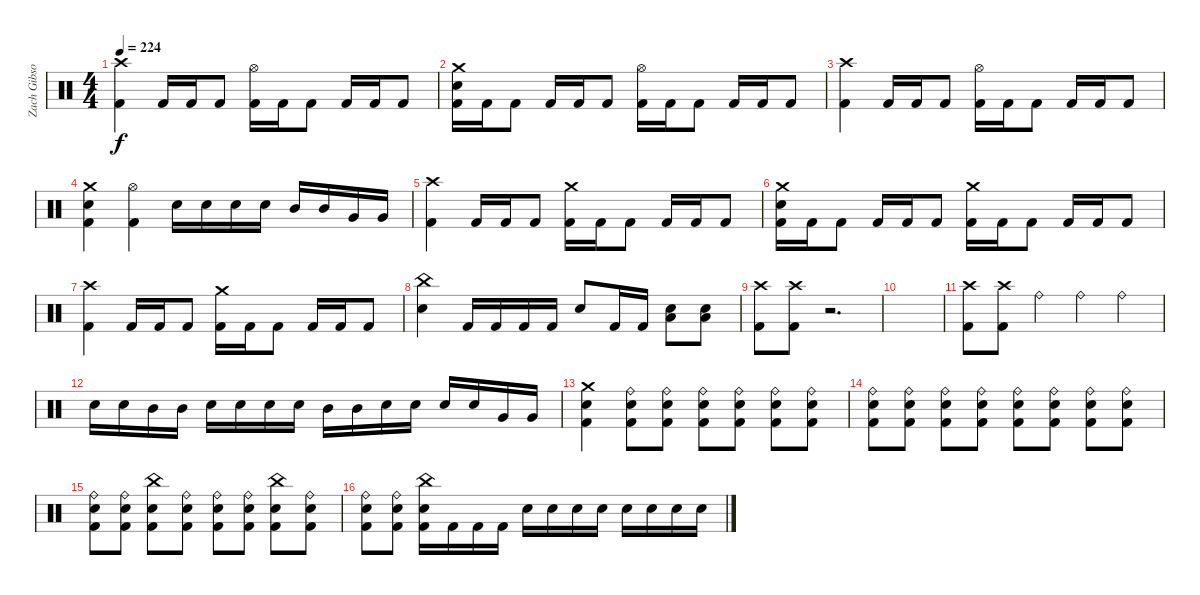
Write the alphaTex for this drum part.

\track ("Zach Gibson (Drums)" "Zach Gibso") {instrument percussion}
\staff {score}
\articulation defaults
\ts (4 4)
\tempo 224
\clef neutral
\ks c
("Crash high (hit)" "Kick (hit) 2").4{dy f} "Kick (hit) 2".16 "Kick (hit) 2".16 "Kick (hit) 2".8 ("Hi-Hat (open)" "Kick (hit) 2").16 "Kick (hit) 2".16 "Kick (hit) 2".8 "Kick (hit) 2".16 "Kick (hit) 2".16 "Kick (hit) 2".8 |
("Snare (hit) 2" "Crash medium (hit)" "Kick (hit) 2").16 "Kick (hit) 2".16 "Kick (hit) 2".8 "Kick (hit) 2".16 "Kick (hit) 2".16 "Kick (hit) 2".8 ("Hi-Hat (open)" "Kick (hit) 2").16 "Kick (hit) 2".16 "Kick (hit) 2".8 "Kick (hit) 2".16 "Kick (hit) 2".16 "Kick (hit) 2".8 |
("Crash high (hit)" "Kick (hit) 2").4 "Kick (hit) 2".16 "Kick (hit) 2".16 "Kick (hit) 2".8 ("Hi-Hat (open)" "Kick (hit) 2").16 "Kick (hit) 2".16 "Kick (hit) 2".8 "Kick (hit) 2".16 "Kick (hit) 2".16 "Kick (hit) 2".8 |
("Crash medium (hit)" "Snare (hit) 2" "Kick (hit) 2").4 ("Hi-Hat (open)" "Kick (hit) 2").4 "Snare (hit) 2".16 "Snare (hit) 2".16 "Snare (hit) 2".16 "Snare (hit) 2".16 "Mid Tom (hit)".16 "Mid Tom (hit)".16 "Very Low Tom (hit)".16 "Very Low Tom (hit)".16 |
("Crash high (hit)" "Kick (hit) 2").4 "Kick (hit) 2".16 "Kick (hit) 2".16 "Kick (hit) 2".8 ("Crash medium (hit)" "Kick (hit) 2").16 "Kick (hit) 2".16 "Kick (hit) 2".8 "Kick (hit) 2".16 "Kick (hit) 2".16 "Kick (hit) 2".8 |
("Snare (hit) 2" "Crash medium (hit)" "Kick (hit) 2").16 "Kick (hit) 2".16 "Kick (hit) 2".8 "Kick (hit) 2".16 "Kick (hit) 2".16 "Kick (hit) 2".8 ("Crash medium (hit)" "Kick (hit) 2").16 "Kick (hit) 2".16 "Kick (hit) 2".8 "Kick (hit) 2".16 "Kick (hit) 2".16 "Kick (hit) 2".8 |
("Crash high (hit)" "Kick (hit) 2").4 "Kick (hit) 2".16 "Kick (hit) 2".16 "Kick (hit) 2".8 ("Crash medium (hit)" "Kick (hit) 2").16 "Kick (hit) 2".16 "Kick (hit) 2".8 "Kick (hit) 2".16 "Kick (hit) 2".16 "Kick (hit) 2".8 |
("China (hit)" "Snare (hit) 2").4 "Kick (hit) 2".16 "Kick (hit) 2".16 "Kick (hit) 2".16 "Kick (hit) 2".16 "Snare (hit) 2".8 "Kick (hit) 2".16 "Kick (hit) 2".16 ("Low Floor Tom (hit)" "Snare (hit) 2").8 ("Low Floor Tom (hit)" "Snare (hit) 2").8 |
("Crash high (hit)" "Kick (hit) 2").8 ("Crash high (hit)" "Kick (hit) 2").8 r.2{d} |
|
("Crash high (hit)" "Kick (hit) 2").8 ("Crash high (hit)" "Kick (hit) 2").8 "Ride (bell)".4 "Ride (bell)".4 "Ride (bell)".4 |
"Snare (hit) 2".16 "Snare (hit) 2".16 "Mid Tom (hit)".16 "Mid Tom (hit)".16 "Snare (hit) 2".16 "Snare (hit) 2".16 "Snare (hit) 2".16 "Snare (hit) 2".16 "Mid Tom (hit)".16 "Mid Tom (hit)".16 "Snare (hit) 2".16 "Snare (hit) 2".16 "Snare (hit) 2".16 "Snare (hit) 2".16 "Very Low Tom (hit)".16 "Very Low Tom (hit)".16 |
("Crash medium (hit)" "Snare (hit) 2" "Kick (hit) 2").4 ("Ride (bell)" "Snare (hit) 2" "Kick (hit) 2").8 ("Ride (bell)" "Snare (hit) 2" "Kick (hit) 2").8 ("Ride (bell)" "Snare (hit) 2" "Kick (hit) 2").8 ("Ride (bell)" "Snare (hit) 2" "Kick (hit) 2").8 ("Ride (bell)" "Snare (hit) 2" "Kick (hit) 2").8 ("Ride (bell)" "Snare (hit) 2" "Kick (hit) 2").8 |
("Ride (bell)" "Snare (hit) 2" "Kick (hit) 2").8 ("Ride (bell)" "Snare (hit) 2" "Kick (hit) 2").8 ("Ride (bell)" "Snare (hit) 2" "Kick (hit) 2").8 ("Ride (bell)" "Snare (hit) 2" "Kick (hit) 2").8 ("Ride (bell)" "Snare (hit) 2" "Kick (hit) 2").8 ("Ride (bell)" "Snare (hit) 2" "Kick (hit) 2").8 ("Ride (bell)" "Snare (hit) 2" "Kick (hit) 2").8 ("Ride (bell)" "Snare (hit) 2" "Kick (hit) 2").8 |
("Ride (bell)" "Snare (hit) 2" "Kick (hit) 2").8 ("Ride (bell)" "Snare (hit) 2" "Kick (hit) 2").8 ("China (hit)" "Snare (hit) 2" "Kick (hit) 2").8 ("Ride (bell)" "Snare (hit) 2" "Kick (hit) 2").8 ("Ride (bell)" "Snare (hit) 2" "Kick (hit) 2").8 ("Ride (bell)" "Snare (hit) 2" "Kick (hit) 2").8 ("China (hit)" "Snare (hit) 2" "Kick (hit) 2").8 ("Ride (bell)" "Snare (hit) 2" "Kick (hit) 2").8 |
("Ride (bell)" "Snare (hit) 2" "Kick (hit) 2").8 ("Ride (bell)" "Snare (hit) 2" "Kick (hit) 2").8 ("China (hit)" "Snare (hit) 2" "Kick (hit) 2").16 "Kick (hit) 2".16 "Kick (hit) 2".16 "Kick (hit) 2".16 "Snare (hit) 2".16 "Snare (hit) 2".16 "Snare (hit) 2".16 "Snare (hit) 2".16 "Snare (hit) 2".16 "Snare (hit) 2".16 "Snare (hit) 2".16 "Snare (hit) 2".16
